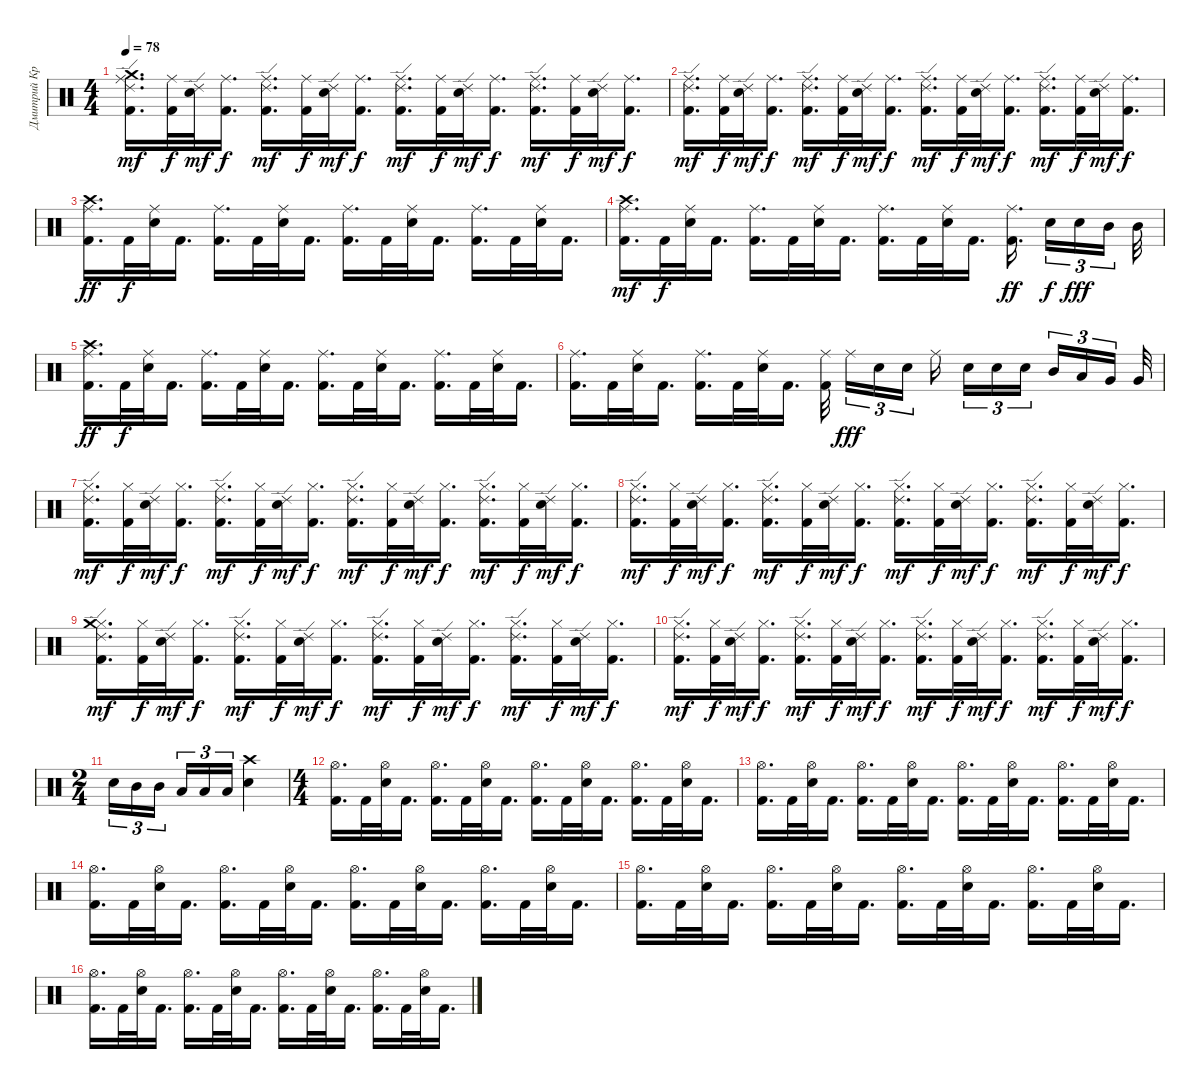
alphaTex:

\track ("Дмитрий Кривенков" "Дмитрий Кр") {instrument percussion}
\staff {score}
\articulation defaults
\ts (4 4)
\tempo 78
\clef neutral
\ks c
("Ride (middle)" "Ride (edge) 2" "Crash medium (hit)" "Kick (hit) 2").16{d dy mf} ("Ride (middle)" "Kick (hit) 2").32{dy f} ("Ride (edge) 2" "Electric Snare (hit)").32{dy mf} ("Ride (middle)" "Kick (hit) 2").16{d dy f} ("Ride (middle)" "Ride (edge) 2" "Kick (hit) 2").16{d dy mf} ("Ride (middle)" "Kick (hit) 2").32{dy f} ("Ride (edge) 2" "Electric Snare (hit)").32{dy mf} ("Ride (middle)" "Kick (hit) 2").16{d dy f} ("Ride (middle)" "Ride (edge) 2" "Kick (hit) 2").16{d dy mf} ("Ride (middle)" "Kick (hit) 2").32{dy f} ("Ride (edge) 2" "Electric Snare (hit)").32{dy mf} ("Ride (middle)" "Kick (hit) 2").16{d dy f} ("Ride (middle)" "Ride (edge) 2" "Kick (hit) 2").16{d dy mf} ("Ride (middle)" "Kick (hit) 2").32{dy f} ("Ride (edge) 2" "Electric Snare (hit)").32{dy mf} ("Ride (middle)" "Kick (hit) 2").16{d dy f} |
("Ride (middle)" "Ride (edge) 2" "Kick (hit) 2").16{d dy mf} ("Ride (middle)" "Kick (hit) 2").32{dy f} ("Ride (edge) 2" "Electric Snare (hit)").32{dy mf} ("Ride (middle)" "Kick (hit) 2").16{d dy f} ("Ride (middle)" "Ride (edge) 2" "Kick (hit) 2").16{d dy mf} ("Ride (middle)" "Kick (hit) 2").32{dy f} ("Ride (edge) 2" "Electric Snare (hit)").32{dy mf} ("Ride (middle)" "Kick (hit) 2").16{d dy f} ("Ride (middle)" "Ride (edge) 2" "Kick (hit) 2").16{d dy mf} ("Ride (middle)" "Kick (hit) 2").32{dy f} ("Ride (edge) 2" "Electric Snare (hit)").32{dy mf} ("Ride (middle)" "Kick (hit) 2").16{d dy f} ("Ride (middle)" "Ride (edge) 2" "Kick (hit) 2").16{d dy mf} ("Ride (middle)" "Kick (hit) 2").32{dy f} ("Ride (edge) 2" "Electric Snare (hit)").32{dy mf} ("Ride (middle)" "Kick (hit) 2").16{d dy f} |
("Ride (middle)" "Crash high (hit)" "Kick (hit) 2").16{d dy ff volume 13} "Kick (hit) 2".32{dy f} ("Ride (middle)" "Electric Snare (hit)").32 "Kick (hit) 2".16{d} ("Ride (middle)" "Kick (hit) 2").16{d} "Kick (hit) 2".32 ("Ride (middle)" "Electric Snare (hit)").32 "Kick (hit) 2".16{d} ("Ride (middle)" "Kick (hit) 2").16{d} "Kick (hit) 2".32 ("Ride (middle)" "Electric Snare (hit)").32 "Kick (hit) 2".16{d} ("Ride (middle)" "Kick (hit) 2").16{d} "Kick (hit) 2".32 ("Ride (middle)" "Electric Snare (hit)").32 "Kick (hit) 2".16{d} |
("Ride (middle)" "Crash high (hit)" "Kick (hit) 2").16{d dy mf} "Kick (hit) 2".32{dy f} ("Ride (middle)" "Electric Snare (hit)").32 "Kick (hit) 2".16{d} ("Ride (middle)" "Kick (hit) 2").16{d} "Kick (hit) 2".32 ("Ride (middle)" "Electric Snare (hit)").32 "Kick (hit) 2".16{d} ("Ride (middle)" "Kick (hit) 2").16{d} "Kick (hit) 2".32 ("Ride (middle)" "Electric Snare (hit)").32 "Kick (hit) 2".16{d} ("Ride (middle)" "Kick (hit) 2").16{d dy ff beam splitsecondary} "Electric Snare (hit)".16{tu (3 2) dy f} "Electric Snare (hit)".16{tu (3 2) dy fff} "Mid Tom (hit)".16{tu (3 2) beam splitsecondary} "Mid Tom (hit)".32 |
("Ride (middle)" "Crash high (hit)" "Kick (hit) 2").16{d dy ff} "Kick (hit) 2".32{dy f} ("Ride (middle)" "Electric Snare (hit)").32 "Kick (hit) 2".16{d} ("Ride (middle)" "Kick (hit) 2").16{d} "Kick (hit) 2".32 ("Ride (middle)" "Electric Snare (hit)").32 "Kick (hit) 2".16{d} ("Ride (middle)" "Kick (hit) 2").16{d} "Kick (hit) 2".32 ("Ride (middle)" "Electric Snare (hit)").32 "Kick (hit) 2".16{d} ("Ride (middle)" "Kick (hit) 2").16{d} "Kick (hit) 2".32 ("Ride (middle)" "Electric Snare (hit)").32 "Kick (hit) 2".16{d} |
("Ride (middle)" "Kick (hit) 2").16{d} "Kick (hit) 2".32 ("Ride (middle)" "Electric Snare (hit)").32 "Kick (hit) 2".16{d} ("Ride (middle)" "Kick (hit) 2").16{d} "Kick (hit) 2".32 ("Ride (middle)" "Electric Snare (hit)").32 "Kick (hit) 2".16{d} ("Ride (middle)" "Kick (hit) 2").32{beam splitsecondary} "Ride (middle)".16{tu (3 2) dy fff} "Electric Snare (hit)".16{tu (3 2)} "Electric Snare (hit)".16{tu (3 2) beam splitsecondary} "Ride (middle)".16 "Electric Snare (hit)".16{tu (3 2)} "Electric Snare (hit)".16{tu (3 2)} "Electric Snare (hit)".16{tu (3 2) beam splitsecondary} "Mid Tom (hit)".16{tu (3 2)} "Low Tom (hit)".16{tu (3 2)} "Very Low Tom (hit)".16{tu (3 2) beam splitsecondary} "Very Low Tom (hit)".32 |
("Hi-Hat (closed)" "Ride (edge) 2" "Kick (hit) 2").16{d dy mf} ("Hi-Hat (closed)" "Kick (hit) 2").32{dy f} ("Ride (edge) 2" "Electric Snare (hit)").32{dy mf} ("Hi-Hat (closed)" "Kick (hit) 2").16{d dy f} ("Hi-Hat (closed)" "Ride (edge) 2" "Kick (hit) 2").16{d dy mf} ("Hi-Hat (closed)" "Kick (hit) 2").32{dy f} ("Ride (edge) 2" "Electric Snare (hit)").32{dy mf} ("Hi-Hat (closed)" "Kick (hit) 2").16{d dy f} ("Hi-Hat (closed)" "Ride (edge) 2" "Kick (hit) 2").16{d dy mf} ("Hi-Hat (closed)" "Kick (hit) 2").32{dy f} ("Ride (edge) 2" "Electric Snare (hit)").32{dy mf} ("Hi-Hat (closed)" "Kick (hit) 2").16{d dy f} ("Hi-Hat (closed)" "Ride (edge) 2" "Kick (hit) 2").16{d dy mf} ("Hi-Hat (closed)" "Kick (hit) 2").32{dy f} ("Ride (edge) 2" "Electric Snare (hit)").32{dy mf} ("Hi-Hat (closed)" "Kick (hit) 2").16{d dy f} |
("Hi-Hat (closed)" "Ride (edge) 2" "Kick (hit) 2").16{d dy mf} ("Hi-Hat (closed)" "Kick (hit) 2").32{dy f} ("Ride (edge) 2" "Electric Snare (hit)").32{dy mf} ("Hi-Hat (closed)" "Kick (hit) 2").16{d dy f} ("Hi-Hat (closed)" "Ride (edge) 2" "Kick (hit) 2").16{d dy mf} ("Hi-Hat (closed)" "Kick (hit) 2").32{dy f} ("Ride (edge) 2" "Electric Snare (hit)").32{dy mf} ("Hi-Hat (closed)" "Kick (hit) 2").16{d dy f} ("Hi-Hat (closed)" "Ride (edge) 2" "Kick (hit) 2").16{d dy mf} ("Hi-Hat (closed)" "Kick (hit) 2").32{dy f} ("Ride (edge) 2" "Electric Snare (hit)").32{dy mf} ("Hi-Hat (closed)" "Kick (hit) 2").16{d dy f} ("Hi-Hat (closed)" "Ride (edge) 2" "Kick (hit) 2").16{d dy mf} ("Hi-Hat (closed)" "Kick (hit) 2").32{dy f} ("Ride (edge) 2" "Electric Snare (hit)").32{dy mf} ("Hi-Hat (closed)" "Kick (hit) 2").16{d dy f} |
("Hi-Hat (closed)" "Ride (edge) 2" "Crash medium (hit)" "Kick (hit) 2").16{d dy mf} ("Hi-Hat (closed)" "Kick (hit) 2").32{dy f} ("Ride (edge) 2" "Electric Snare (hit)").32{dy mf} ("Hi-Hat (closed)" "Kick (hit) 2").16{d dy f} ("Hi-Hat (closed)" "Ride (edge) 2" "Kick (hit) 2").16{d dy mf} ("Hi-Hat (closed)" "Kick (hit) 2").32{dy f} ("Ride (edge) 2" "Electric Snare (hit)").32{dy mf} ("Hi-Hat (closed)" "Kick (hit) 2").16{d dy f} ("Hi-Hat (closed)" "Ride (edge) 2" "Kick (hit) 2").16{d dy mf} ("Hi-Hat (closed)" "Kick (hit) 2").32{dy f} ("Ride (edge) 2" "Electric Snare (hit)").32{dy mf} ("Hi-Hat (closed)" "Kick (hit) 2").16{d dy f} ("Hi-Hat (closed)" "Ride (edge) 2" "Kick (hit) 2").16{d dy mf} ("Hi-Hat (closed)" "Kick (hit) 2").32{dy f} ("Ride (edge) 2" "Electric Snare (hit)").32{dy mf} ("Hi-Hat (closed)" "Kick (hit) 2").16{d dy f} |
("Hi-Hat (closed)" "Ride (edge) 2" "Kick (hit) 2").16{d dy mf} ("Hi-Hat (closed)" "Kick (hit) 2").32{dy f} ("Ride (edge) 2" "Electric Snare (hit)").32{dy mf} ("Hi-Hat (closed)" "Kick (hit) 2").16{d dy f} ("Hi-Hat (closed)" "Ride (edge) 2" "Kick (hit) 2").16{d dy mf} ("Hi-Hat (closed)" "Kick (hit) 2").32{dy f} ("Ride (edge) 2" "Electric Snare (hit)").32{dy mf} ("Hi-Hat (closed)" "Kick (hit) 2").16{d dy f} ("Hi-Hat (closed)" "Ride (edge) 2" "Kick (hit) 2").16{d dy mf} ("Hi-Hat (closed)" "Kick (hit) 2").32{dy f} ("Ride (edge) 2" "Electric Snare (hit)").32{dy mf} ("Hi-Hat (closed)" "Kick (hit) 2").16{d dy f} ("Hi-Hat (closed)" "Ride (edge) 2" "Kick (hit) 2").16{d dy mf} ("Hi-Hat (closed)" "Kick (hit) 2").32{dy f} ("Ride (edge) 2" "Electric Snare (hit)").32{dy mf} ("Hi-Hat (closed)" "Kick (hit) 2").16{d dy f} |
\ts (2 4)
"Electric Snare (hit)".16{tu (3 2)} "Mid Tom (hit)".16{tu (3 2)} "Mid Tom (hit)".16{tu (3 2) beam splitsecondary} "Low Tom (hit)".16{tu (3 2)} "Low Tom (hit)".16{tu (3 2)} "Low Tom (hit)".16{tu (3 2)} ("Crash high (hit)" "Electric Snare (hit)").4 |
\ts (4 4)
("Hi-Hat (open)" "Kick (hit) 2").16{d} "Kick (hit) 2".32 ("Hi-Hat (open)" "Electric Snare (hit)").32 "Kick (hit) 2".16{d} ("Hi-Hat (open)" "Kick (hit) 2").16{d} "Kick (hit) 2".32 ("Hi-Hat (open)" "Electric Snare (hit)").32 "Kick (hit) 2".16{d} ("Hi-Hat (open)" "Kick (hit) 2").16{d} "Kick (hit) 2".32 ("Hi-Hat (open)" "Electric Snare (hit)").32 "Kick (hit) 2".16{d} ("Hi-Hat (open)" "Kick (hit) 2").16{d} "Kick (hit) 2".32 ("Hi-Hat (open)" "Electric Snare (hit)").32 "Kick (hit) 2".16{d} |
("Hi-Hat (open)" "Kick (hit) 2").16{d} "Kick (hit) 2".32 ("Hi-Hat (open)" "Electric Snare (hit)").32 "Kick (hit) 2".16{d} ("Hi-Hat (open)" "Kick (hit) 2").16{d} "Kick (hit) 2".32 ("Hi-Hat (open)" "Electric Snare (hit)").32 "Kick (hit) 2".16{d} ("Hi-Hat (open)" "Kick (hit) 2").16{d} "Kick (hit) 2".32 ("Hi-Hat (open)" "Electric Snare (hit)").32 "Kick (hit) 2".16{d} ("Hi-Hat (open)" "Kick (hit) 2").16{d} "Kick (hit) 2".32 ("Hi-Hat (open)" "Electric Snare (hit)").32 "Kick (hit) 2".16{d} |
("Hi-Hat (open)" "Kick (hit) 2").16{d} "Kick (hit) 2".32 ("Hi-Hat (open)" "Electric Snare (hit)").32 "Kick (hit) 2".16{d} ("Hi-Hat (open)" "Kick (hit) 2").16{d} "Kick (hit) 2".32 ("Hi-Hat (open)" "Electric Snare (hit)").32 "Kick (hit) 2".16{d} ("Hi-Hat (open)" "Kick (hit) 2").16{d} "Kick (hit) 2".32 ("Hi-Hat (open)" "Electric Snare (hit)").32 "Kick (hit) 2".16{d} ("Hi-Hat (open)" "Kick (hit) 2").16{d} "Kick (hit) 2".32 ("Hi-Hat (open)" "Electric Snare (hit)").32 "Kick (hit) 2".16{d} |
("Hi-Hat (open)" "Kick (hit) 2").16{d} "Kick (hit) 2".32 ("Hi-Hat (open)" "Electric Snare (hit)").32 "Kick (hit) 2".16{d} ("Hi-Hat (open)" "Kick (hit) 2").16{d} "Kick (hit) 2".32 ("Hi-Hat (open)" "Electric Snare (hit)").32 "Kick (hit) 2".16{d} ("Hi-Hat (open)" "Kick (hit) 2").16{d} "Kick (hit) 2".32 ("Hi-Hat (open)" "Electric Snare (hit)").32 "Kick (hit) 2".16{d} ("Hi-Hat (open)" "Kick (hit) 2").16{d} "Kick (hit) 2".32 ("Hi-Hat (open)" "Electric Snare (hit)").32 "Kick (hit) 2".16{d} |
("Hi-Hat (open)" "Kick (hit) 2").16{d} "Kick (hit) 2".32 ("Hi-Hat (open)" "Electric Snare (hit)").32 "Kick (hit) 2".16{d} ("Hi-Hat (open)" "Kick (hit) 2").16{d} "Kick (hit) 2".32 ("Hi-Hat (open)" "Electric Snare (hit)").32 "Kick (hit) 2".16{d} ("Hi-Hat (open)" "Kick (hit) 2").16{d} "Kick (hit) 2".32 ("Hi-Hat (open)" "Electric Snare (hit)").32 "Kick (hit) 2".16{d} ("Hi-Hat (open)" "Kick (hit) 2").16{d} "Kick (hit) 2".32 ("Hi-Hat (open)" "Electric Snare (hit)").32 "Kick (hit) 2".16{d}
